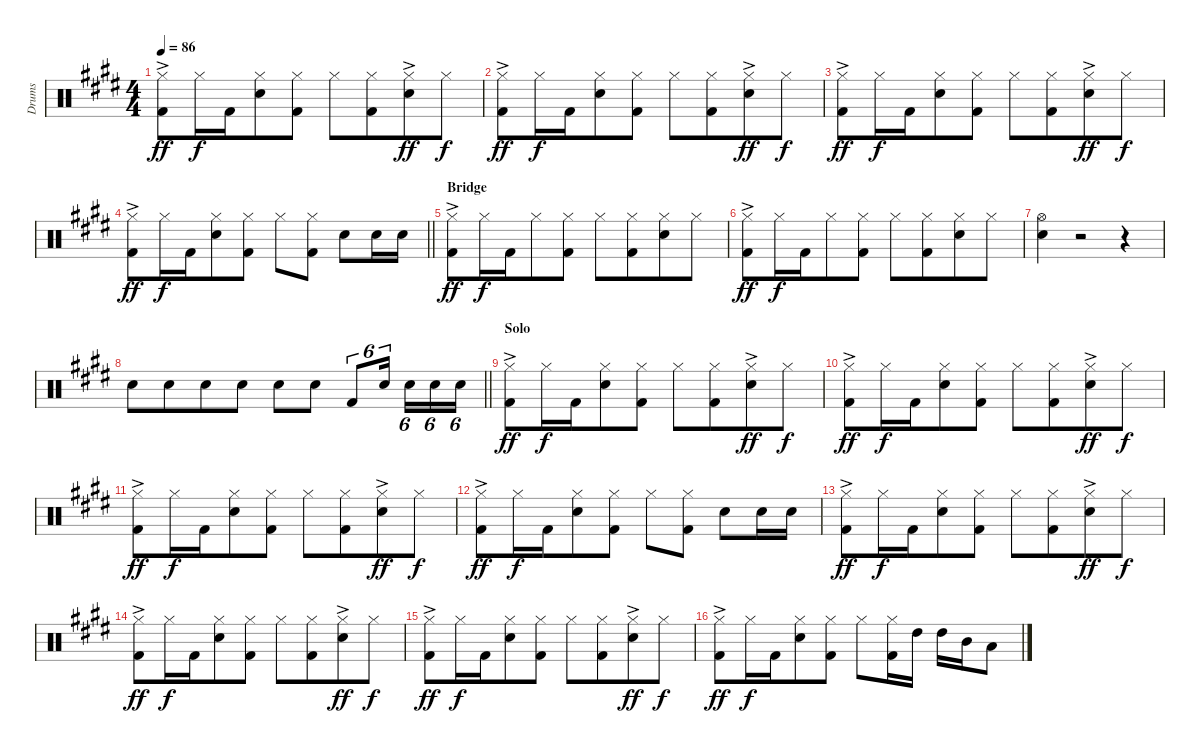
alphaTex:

\track ("Drums" "Drums") {instrument percussion}
\staff {score}
\articulation defaults
\ts (4 4)
\tempo 86
\clef neutral
\ks e
("Hi-Hat (closed)" "Kick (hit) 2"{ac}).8{dy ff} "Hi-Hat (closed)".16{dy f} "Kick (hit) 2".16{beam merge} ("Hi-Hat (closed)" "Electric Snare (hit)").8 ("Hi-Hat (closed)" "Kick (hit) 2").8 "Hi-Hat (closed)".8 ("Hi-Hat (closed)" "Kick (hit) 2").8{beam merge} ("Hi-Hat (closed)" "Electric Snare (hit)"{ac}).8{dy ff} "Hi-Hat (closed)".8{dy f} |
("Hi-Hat (closed)" "Kick (hit) 2"{ac}).8{dy ff} "Hi-Hat (closed)".16{dy f} "Kick (hit) 2".16{beam merge} ("Hi-Hat (closed)" "Electric Snare (hit)").8 ("Hi-Hat (closed)" "Kick (hit) 2").8 "Hi-Hat (closed)".8 ("Hi-Hat (closed)" "Kick (hit) 2").8{beam merge} ("Hi-Hat (closed)" "Electric Snare (hit)"{ac}).8{dy ff} "Hi-Hat (closed)".8{dy f} |
("Hi-Hat (closed)" "Kick (hit) 2"{ac}).8{dy ff} "Hi-Hat (closed)".16{dy f} "Kick (hit) 2".16{beam merge} ("Hi-Hat (closed)" "Electric Snare (hit)").8 ("Hi-Hat (closed)" "Kick (hit) 2").8 "Hi-Hat (closed)".8 ("Hi-Hat (closed)" "Kick (hit) 2").8{beam merge} ("Hi-Hat (closed)" "Electric Snare (hit)"{ac}).8{dy ff} "Hi-Hat (closed)".8{dy f} |
\barLineRight lightlight
("Hi-Hat (closed)" "Kick (hit) 2"{ac}).8{dy ff} "Hi-Hat (closed)".16{dy f} "Kick (hit) 2".16{beam merge} ("Hi-Hat (closed)" "Electric Snare (hit)").8 ("Hi-Hat (closed)" "Kick (hit) 2").8 "Hi-Hat (closed)".8 ("Hi-Hat (closed)" "Kick (hit) 2").8 "Electric Snare (hit)".8 "Electric Snare (hit)".16 "Electric Snare (hit)".16 |
\section ("" "Bridge")
("Hi-Hat (closed)" "Kick (hit) 2"{ac}).8{dy ff} "Hi-Hat (closed)".16{dy f} "Kick (hit) 2".16{beam merge} "Hi-Hat (closed)".8 ("Hi-Hat (closed)" "Kick (hit) 2").8 "Hi-Hat (closed)".8 ("Hi-Hat (closed)" "Kick (hit) 2").8{beam merge} ("Hi-Hat (closed)" "Electric Snare (hit)").8 "Hi-Hat (closed)".8 |
("Hi-Hat (closed)" "Kick (hit) 2"{ac}).8{dy ff} "Hi-Hat (closed)".16{dy f} "Kick (hit) 2".16{beam merge} "Hi-Hat (closed)".8 ("Hi-Hat (closed)" "Kick (hit) 2").8 "Hi-Hat (closed)".8 ("Hi-Hat (closed)" "Kick (hit) 2").8{beam merge} ("Hi-Hat (closed)" "Electric Snare (hit)").8 "Hi-Hat (closed)".8 |
("Hi-Hat (open)" "Electric Snare (hit)").4 r.2 r.4 |
\barLineRight lightlight "Electric Snare (hit)".8 "Electric Snare (hit)".8{beam merge} "Electric Snare (hit)".8 "Electric Snare (hit)".8 "Electric Snare (hit)".8 "Electric Snare (hit)".8 "Kick (hit) 2".8{tu (6 4)} "Electric Snare (hit)".16{tu (6 4) beam splitsecondary} "Electric Snare (hit)".16{tu (6 4)} "Electric Snare (hit)".16{tu (6 4)} "Electric Snare (hit)".16{tu (6 4)}
|
\section ("" "Solo")
("Hi-Hat (closed)" "Kick (hit) 2"{ac}).8{dy ff} "Hi-Hat (closed)".16{dy f} "Kick (hit) 2".16{beam merge} ("Hi-Hat (closed)" "Electric Snare (hit)").8 ("Hi-Hat (closed)" "Kick (hit) 2").8 "Hi-Hat (closed)".8 ("Hi-Hat (closed)" "Kick (hit) 2").8{beam merge} ("Hi-Hat (closed)" "Electric Snare (hit)"{ac}).8{dy ff} "Hi-Hat (closed)".8{dy f} |
("Hi-Hat (closed)" "Kick (hit) 2"{ac}).8{dy ff} "Hi-Hat (closed)".16{dy f} "Kick (hit) 2".16{beam merge} ("Hi-Hat (closed)" "Electric Snare (hit)").8 ("Hi-Hat (closed)" "Kick (hit) 2").8 "Hi-Hat (closed)".8 ("Hi-Hat (closed)" "Kick (hit) 2").8{beam merge} ("Hi-Hat (closed)" "Electric Snare (hit)"{ac}).8{dy ff} "Hi-Hat (closed)".8{dy f} |
("Hi-Hat (closed)" "Kick (hit) 2"{ac}).8{dy ff} "Hi-Hat (closed)".16{dy f} "Kick (hit) 2".16{beam merge} ("Hi-Hat (closed)" "Electric Snare (hit)").8 ("Hi-Hat (closed)" "Kick (hit) 2").8 "Hi-Hat (closed)".8 ("Hi-Hat (closed)" "Kick (hit) 2").8{beam merge} ("Hi-Hat (closed)" "Electric Snare (hit)"{ac}).8{dy ff} "Hi-Hat (closed)".8{dy f} |
("Hi-Hat (closed)" "Kick (hit) 2"{ac}).8{dy ff} "Hi-Hat (closed)".16{dy f} "Kick (hit) 2".16{beam merge} ("Hi-Hat (closed)" "Electric Snare (hit)").8 ("Hi-Hat (closed)" "Kick (hit) 2").8 "Hi-Hat (closed)".8 ("Hi-Hat (closed)" "Kick (hit) 2").8{beam split} "Electric Snare (hit)".8 "Electric Snare (hit)".16 "Electric Snare (hit)".16 |
("Hi-Hat (closed)" "Kick (hit) 2"{ac}).8{dy ff} "Hi-Hat (closed)".16{dy f} "Kick (hit) 2".16{beam merge} ("Hi-Hat (closed)" "Electric Snare (hit)").8 ("Hi-Hat (closed)" "Kick (hit) 2").8 "Hi-Hat (closed)".8 ("Hi-Hat (closed)" "Kick (hit) 2").8{beam merge} ("Hi-Hat (closed)" "Electric Snare (hit)"{ac}).8{dy ff} "Hi-Hat (closed)".8{dy f} |
("Hi-Hat (closed)" "Kick (hit) 2"{ac}).8{dy ff} "Hi-Hat (closed)".16{dy f} "Kick (hit) 2".16{beam merge} ("Hi-Hat (closed)" "Electric Snare (hit)").8 ("Hi-Hat (closed)" "Kick (hit) 2").8 "Hi-Hat (closed)".8 ("Hi-Hat (closed)" "Kick (hit) 2").8{beam merge} ("Hi-Hat (closed)" "Electric Snare (hit)"{ac}).8{dy ff} "Hi-Hat (closed)".8{dy f} |
("Hi-Hat (closed)" "Kick (hit) 2"{ac}).8{dy ff} "Hi-Hat (closed)".16{dy f} "Kick (hit) 2".16{beam merge} ("Hi-Hat (closed)" "Electric Snare (hit)").8 ("Hi-Hat (closed)" "Kick (hit) 2").8 "Hi-Hat (closed)".8 ("Hi-Hat (closed)" "Kick (hit) 2").8{beam merge} ("Hi-Hat (closed)" "Electric Snare (hit)"{ac}).8{dy ff} "Hi-Hat (closed)".8{dy f} |
("Hi-Hat (closed)" "Kick (hit) 2"{ac}).8{dy ff} "Hi-Hat (closed)".16{dy f} "Kick (hit) 2".16{beam merge} ("Hi-Hat (closed)" "Electric Snare (hit)").8 ("Hi-Hat (closed)" "Kick (hit) 2").8 "Hi-Hat (closed)".8 ("Hi-Hat (closed)" "Kick (hit) 2").16 "High Tom (hit)".16 "High Tom (hit)".16 "Mid Tom (hit)".16 "Low Tom (hit)".8
